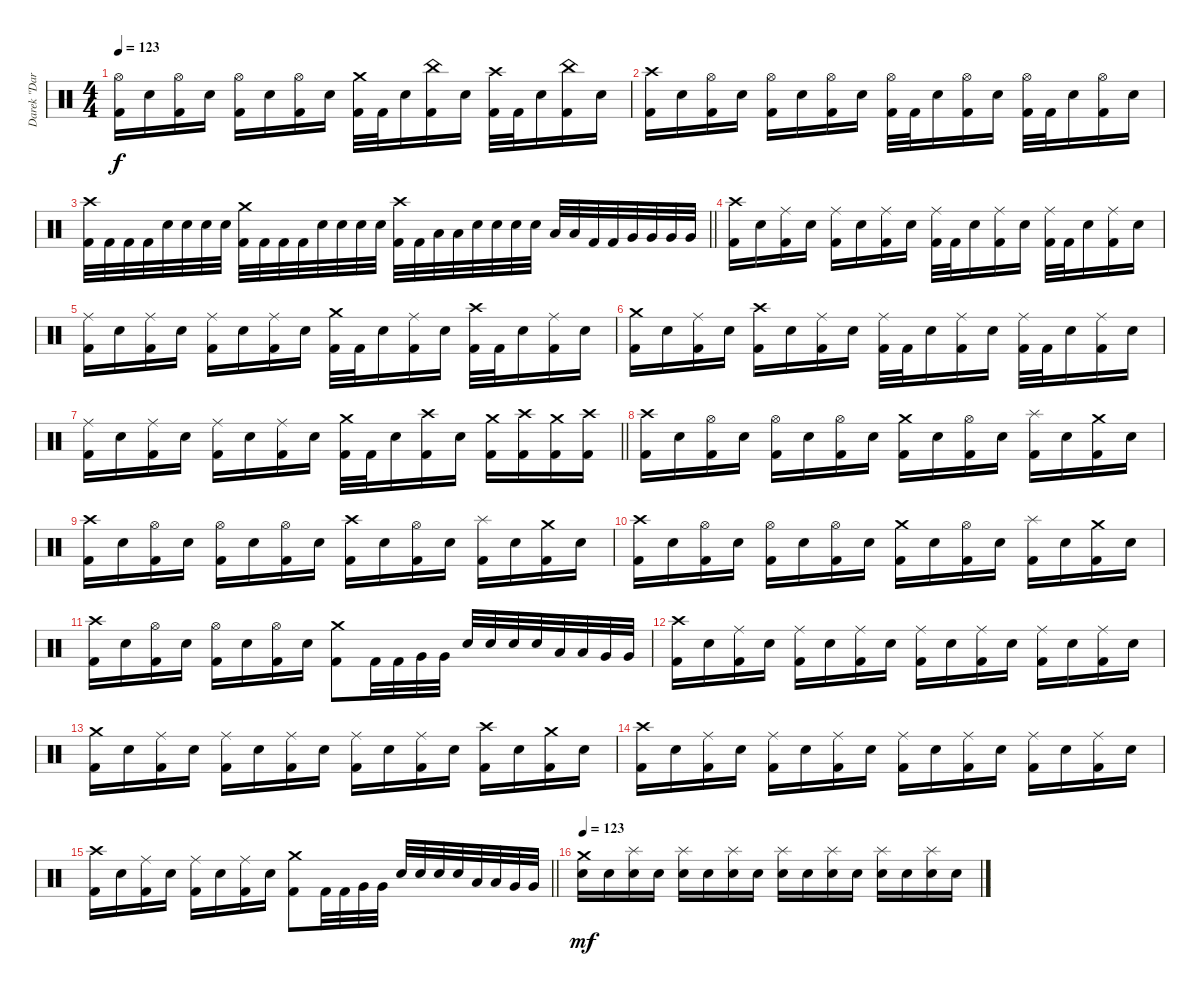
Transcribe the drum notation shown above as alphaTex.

\track ("Darek \"Daray\" Brzozowski " "Darek \"Dar") {instrument percussion}
\staff {score}
\articulation defaults
\ts (4 4)
\tempo 123
\clef neutral
\ks c
("Hi-Hat (open)" "Kick (hit) 2").16{dy f} "Electric Snare (hit)".16 ("Hi-Hat (open)" "Kick (hit) 2").16 "Electric Snare (hit)".16 ("Hi-Hat (open)" "Kick (hit) 2").16 "Electric Snare (hit)".16 ("Hi-Hat (open)" "Kick (hit) 2").16 "Electric Snare (hit)".16 ("Crash medium (hit)" "Kick (hit) 2").32 "Kick (hit) 2".32 "Electric Snare (hit)".16 ("China (hit)" "Kick (hit) 2").16 "Electric Snare (hit)".16 ("Crash high (hit)" "Kick (hit) 2").32 "Kick (hit) 2".32 "Electric Snare (hit)".16 ("China (hit)" "Kick (hit) 2").16 "Electric Snare (hit)".16 |
("Crash high (hit)" "Kick (hit) 2").16 "Electric Snare (hit)".16 ("Hi-Hat (open)" "Kick (hit) 2").16 "Electric Snare (hit)".16 ("Hi-Hat (open)" "Kick (hit) 2").16 "Electric Snare (hit)".16 ("Hi-Hat (open)" "Kick (hit) 2").16 "Electric Snare (hit)".16 ("Hi-Hat (open)" "Kick (hit) 2").32 "Kick (hit) 2".32 "Electric Snare (hit)".16 ("Hi-Hat (open)" "Kick (hit) 2").16 "Electric Snare (hit)".16 ("Hi-Hat (open)" "Kick (hit) 2").32 "Kick (hit) 2".32 "Electric Snare (hit)".16 ("Hi-Hat (open)" "Kick (hit) 2").16 "Electric Snare (hit)".16 |
\barLineRight lightlight
("Crash high (hit)" "Kick (hit) 2").32 "Kick (hit) 2".32 "Kick (hit) 2".32 "Kick (hit) 2".32 "Electric Snare (hit)".32 "Electric Snare (hit)".32 "Electric Snare (hit)".32 "Electric Snare (hit)".32 ("Crash medium (hit)" "Kick (hit) 2").32 "Kick (hit) 2".32 "Kick (hit) 2".32 "Kick (hit) 2".32 "Electric Snare (hit)".32 "Electric Snare (hit)".32 "Electric Snare (hit)".32 "Electric Snare (hit)".32 ("Crash high (hit)" "Kick (hit) 2").32 "Kick (hit) 2".32 "Low Floor Tom (hit)".32 "Low Floor Tom (hit)".32 "Electric Snare (hit)".32 "Electric Snare (hit)".32 "Electric Snare (hit)".32 "Electric Snare (hit)".32 "Low Tom (hit)".32 "Low Tom (hit)".32 "Kick (hit) 2".32 "Kick (hit) 2".32 "Very Low Tom (hit)".32 "Very Low Tom (hit)".32 "Very Low Tom (hit)".32 "Very Low Tom (hit)".32 |
("Crash high (hit)" "Kick (hit) 2").16 "Electric Snare (hit)".16 ("Ride (middle)" "Kick (hit) 2").16 "Electric Snare (hit)".16 ("Ride (middle)" "Kick (hit) 2").16 "Electric Snare (hit)".16 ("Ride (middle)" "Kick (hit) 2").16 "Electric Snare (hit)".16 ("Ride (middle)" "Kick (hit) 2").32 "Kick (hit) 2".32 "Electric Snare (hit)".16 ("Ride (middle)" "Kick (hit) 2").16 "Electric Snare (hit)".16 ("Ride (middle)" "Kick (hit) 2").32 "Kick (hit) 2".32 "Electric Snare (hit)".16 ("Ride (middle)" "Kick (hit) 2").16 "Electric Snare (hit)".16 |
("Ride (middle)" "Kick (hit) 2").16 "Electric Snare (hit)".16 ("Ride (middle)" "Kick (hit) 2").16 "Electric Snare (hit)".16 ("Ride (middle)" "Kick (hit) 2").16 "Electric Snare (hit)".16 ("Ride (middle)" "Kick (hit) 2").16 "Electric Snare (hit)".16 ("Crash medium (hit)" "Kick (hit) 2").32 "Kick (hit) 2".32 "Electric Snare (hit)".16 ("Ride (middle)" "Kick (hit) 2").16 "Electric Snare (hit)".16 ("Crash high (hit)" "Kick (hit) 2").32 "Kick (hit) 2".32 "Electric Snare (hit)".16 ("Ride (middle)" "Kick (hit) 2").16 "Electric Snare (hit)".16 |
("Crash medium (hit)" "Kick (hit) 2").16 "Electric Snare (hit)".16 ("Ride (middle)" "Kick (hit) 2").16 "Electric Snare (hit)".16 ("Crash high (hit)" "Kick (hit) 2").16 "Electric Snare (hit)".16 ("Ride (middle)" "Kick (hit) 2").16 "Electric Snare (hit)".16 ("Ride (middle)" "Kick (hit) 2").32 "Kick (hit) 2".32 "Electric Snare (hit)".16 ("Ride (middle)" "Kick (hit) 2").16 "Electric Snare (hit)".16 ("Ride (middle)" "Kick (hit) 2").32 "Kick (hit) 2".32 "Electric Snare (hit)".16 ("Ride (middle)" "Kick (hit) 2").16 "Electric Snare (hit)".16 |
\barLineRight lightlight
("Ride (middle)" "Kick (hit) 2").16 "Electric Snare (hit)".16 ("Ride (middle)" "Kick (hit) 2").16 "Electric Snare (hit)".16 ("Ride (middle)" "Kick (hit) 2").16 "Electric Snare (hit)".16 ("Ride (middle)" "Kick (hit) 2").16 "Electric Snare (hit)".16 ("Crash medium (hit)" "Kick (hit) 2").32 "Kick (hit) 2".32 "Electric Snare (hit)".16 ("Crash high (hit)" "Kick (hit) 2").16 "Electric Snare (hit)".16 ("Crash medium (hit)" "Kick (hit) 2").16 ("Crash high (hit)" "Kick (hit) 2").16 ("Crash medium (hit)" "Kick (hit) 2").16 ("Crash high (hit)" "Kick (hit) 2").16 |
("Crash high (hit)" "Kick (hit) 2").16 "Electric Snare (hit)".16 ("Hi-Hat (open)" "Kick (hit) 2").16 "Electric Snare (hit)".16 ("Hi-Hat (open)" "Kick (hit) 2").16 "Electric Snare (hit)".16 ("Hi-Hat (open)" "Kick (hit) 2").16 "Electric Snare (hit)".16 ("Crash medium (hit)" "Kick (hit) 2").16 "Electric Snare (hit)".16 ("Hi-Hat (open)" "Kick (hit) 2").16 "Electric Snare (hit)".16 ("Splash (hit)" "Kick (hit) 2").16 "Electric Snare (hit)".16 ("Crash medium (hit)" "Kick (hit) 2").16 "Electric Snare (hit)".16 |
("Crash high (hit)" "Kick (hit) 2").16 "Electric Snare (hit)".16 ("Hi-Hat (open)" "Kick (hit) 2").16 "Electric Snare (hit)".16 ("Hi-Hat (open)" "Kick (hit) 2").16 "Electric Snare (hit)".16 ("Hi-Hat (open)" "Kick (hit) 2").16 "Electric Snare (hit)".16 ("Crash high (hit)" "Kick (hit) 2").16 "Electric Snare (hit)".16 ("Hi-Hat (open)" "Kick (hit) 2").16 "Electric Snare (hit)".16 ("Splash (hit)" "Kick (hit) 2").16 "Electric Snare (hit)".16 ("Crash medium (hit)" "Kick (hit) 2").16 "Electric Snare (hit)".16 |
("Crash high (hit)" "Kick (hit) 2").16 "Electric Snare (hit)".16 ("Hi-Hat (open)" "Kick (hit) 2").16 "Electric Snare (hit)".16 ("Hi-Hat (open)" "Kick (hit) 2").16 "Electric Snare (hit)".16 ("Hi-Hat (open)" "Kick (hit) 2").16 "Electric Snare (hit)".16 ("Crash medium (hit)" "Kick (hit) 2").16 "Electric Snare (hit)".16 ("Hi-Hat (open)" "Kick (hit) 2").16 "Electric Snare (hit)".16 ("Splash (hit)" "Kick (hit) 2").16 "Electric Snare (hit)".16 ("Crash medium (hit)" "Kick (hit) 2").16 "Electric Snare (hit)".16 |
("Crash high (hit)" "Kick (hit) 2").16 "Electric Snare (hit)".16 ("Hi-Hat (open)" "Kick (hit) 2").16 "Electric Snare (hit)".16 ("Hi-Hat (open)" "Kick (hit) 2").16 "Electric Snare (hit)".16 ("Hi-Hat (open)" "Kick (hit) 2").16 "Electric Snare (hit)".16 ("Crash medium (hit)" "Kick (hit) 2").8 "Kick (hit) 2".32 "Kick (hit) 2".32 "Very Low Tom (hit)".32 "Very Low Tom (hit)".32 "Electric Snare (hit)".32 "Electric Snare (hit)".32 "Electric Snare (hit)".32 "Electric Snare (hit)".32 "Low Tom (hit)".32 "Low Tom (hit)".32 "Very Low Tom (hit)".32 "Very Low Tom (hit)".32 |
("Crash high (hit)" "Kick (hit) 2").16 "Electric Snare (hit)".16 ("Ride (middle)" "Kick (hit) 2").16 "Electric Snare (hit)".16 ("Ride (middle)" "Kick (hit) 2").16 "Electric Snare (hit)".16 ("Ride (middle)" "Kick (hit) 2").16 "Electric Snare (hit)".16 ("Ride (middle)" "Kick (hit) 2").16 "Electric Snare (hit)".16 ("Ride (middle)" "Kick (hit) 2").16 "Electric Snare (hit)".16 ("Ride (middle)" "Kick (hit) 2").16 "Electric Snare (hit)".16 ("Ride (middle)" "Kick (hit) 2").16 "Electric Snare (hit)".16 |
("Crash medium (hit)" "Kick (hit) 2").16 "Electric Snare (hit)".16 ("Ride (middle)" "Kick (hit) 2").16 "Electric Snare (hit)".16 ("Ride (middle)" "Kick (hit) 2").16 "Electric Snare (hit)".16 ("Ride (middle)" "Kick (hit) 2").16 "Electric Snare (hit)".16 ("Ride (middle)" "Kick (hit) 2").16 "Electric Snare (hit)".16 ("Ride (middle)" "Kick (hit) 2").16 "Electric Snare (hit)".16 ("Crash high (hit)" "Kick (hit) 2").16 "Electric Snare (hit)".16 ("Crash medium (hit)" "Kick (hit) 2").16 "Electric Snare (hit)".16 |
("Crash high (hit)" "Kick (hit) 2").16 "Electric Snare (hit)".16 ("Ride (middle)" "Kick (hit) 2").16 "Electric Snare (hit)".16 ("Ride (middle)" "Kick (hit) 2").16 "Electric Snare (hit)".16 ("Ride (middle)" "Kick (hit) 2").16 "Electric Snare (hit)".16 ("Ride (middle)" "Kick (hit) 2").16 "Electric Snare (hit)".16 ("Ride (middle)" "Kick (hit) 2").16 "Electric Snare (hit)".16 ("Ride (middle)" "Kick (hit) 2").16 "Electric Snare (hit)".16 ("Ride (middle)" "Kick (hit) 2").16 "Electric Snare (hit)".16 |
\barLineRight lightlight
("Crash high (hit)" "Kick (hit) 2").16 "Electric Snare (hit)".16 ("Ride (middle)" "Kick (hit) 2").16 "Electric Snare (hit)".16 ("Ride (middle)" "Kick (hit) 2").16 "Electric Snare (hit)".16 ("Ride (middle)" "Kick (hit) 2").16 "Electric Snare (hit)".16 ("Crash medium (hit)" "Kick (hit) 2").8 "Kick (hit) 2".32 "Kick (hit) 2".32 "Very Low Tom (hit)".32 "Very Low Tom (hit)".32 "Electric Snare (hit)".32 "Electric Snare (hit)".32 "Electric Snare (hit)".32 "Electric Snare (hit)".32 "Low Tom (hit)".32 "Low Tom (hit)".32 "Very Low Tom (hit)".32 "Very Low Tom (hit)".32 |
\tempo 123
("Crash medium (hit)" "Electric Snare (hit)").16{dy mf} "Electric Snare (hit)".16 ("Splash (hit)" "Electric Snare (hit)").16 "Electric Snare (hit)".16 ("Splash (hit)" "Electric Snare (hit)").16 "Electric Snare (hit)".16 ("Splash (hit)" "Electric Snare (hit)").16 "Electric Snare (hit)".16 ("Splash (hit)" "Electric Snare (hit)").16 "Electric Snare (hit)".16 ("Splash (hit)" "Electric Snare (hit)").16 "Electric Snare (hit)".16 ("Splash (hit)" "Electric Snare (hit)").16 "Electric Snare (hit)".16 ("Splash (hit)" "Electric Snare (hit)").16 "Electric Snare (hit)".16
